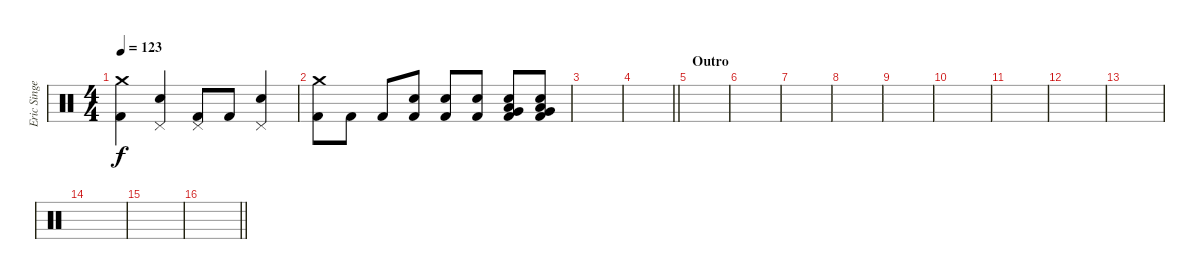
\track ("Eric Singer" "Eric Singe") {instrument percussion}
\staff {score}
\articulation defaults
\ts (4 4)
\tempo 123
\clef neutral
\ks c
("Crash medium (hit)" "Kick (hit) 2").4{dy f} ("Pedal Hi-Hat (hit)" "Snare (hit) 2").4 ("Pedal Hi-Hat (hit)" "Kick (hit) 2").8 "Kick (hit) 2".8 ("Pedal Hi-Hat (hit)" "Snare (hit) 2").4 |
("Crash medium (hit)" "Kick (hit) 2").8 "Kick (hit) 2".8 "Kick (hit) 2".8 ("Snare (hit) 2" "Kick (hit) 2").8 ("Snare (hit) 2" "Kick (hit) 2").8 ("Snare (hit) 2" "Kick (hit) 2").8 ("Low Floor Tom (hit)" "Very Low Tom (hit)" "Snare (hit) 2" "Kick (hit) 2").8 ("Low Floor Tom (hit)" "Very Low Tom (hit)" "Snare (hit) 2" "Kick (hit) 2").8 |
|
\barLineRight lightlight
|
\section ("" "Outro")
|
|
|
|
|
|
|
|
|
|
|
\barLineRight lightlight
